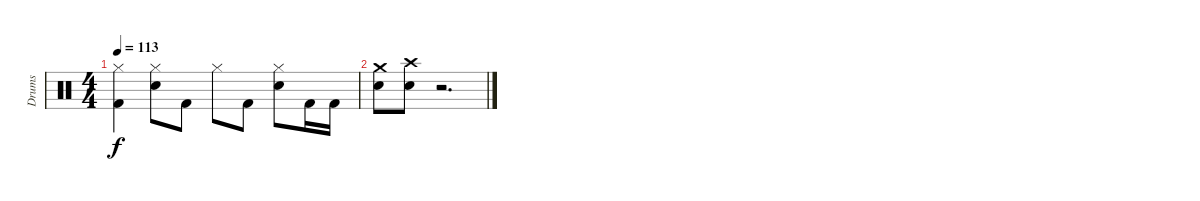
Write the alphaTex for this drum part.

\track ("Drums" "Drums") {instrument percussion}
\staff {score}
\articulation defaults
\ts (4 4)
\tempo 113
\clef neutral
\ks c
("Kick (hit) 2" "Hi-Hat (closed)").4{dy f} ("Snare (hit) 2" "Hi-Hat (closed)").8 "Kick (hit) 2".8 "Hi-Hat (closed)".8 "Kick (hit) 2".8 ("Snare (hit) 2" "Hi-Hat (closed)").8 "Kick (hit) 2".16 "Kick (hit) 2".16 |
("Snare (hit) 2" "Crash medium (hit)").8 ("Snare (hit) 2" "Crash high (hit)").8 r.2{d}
